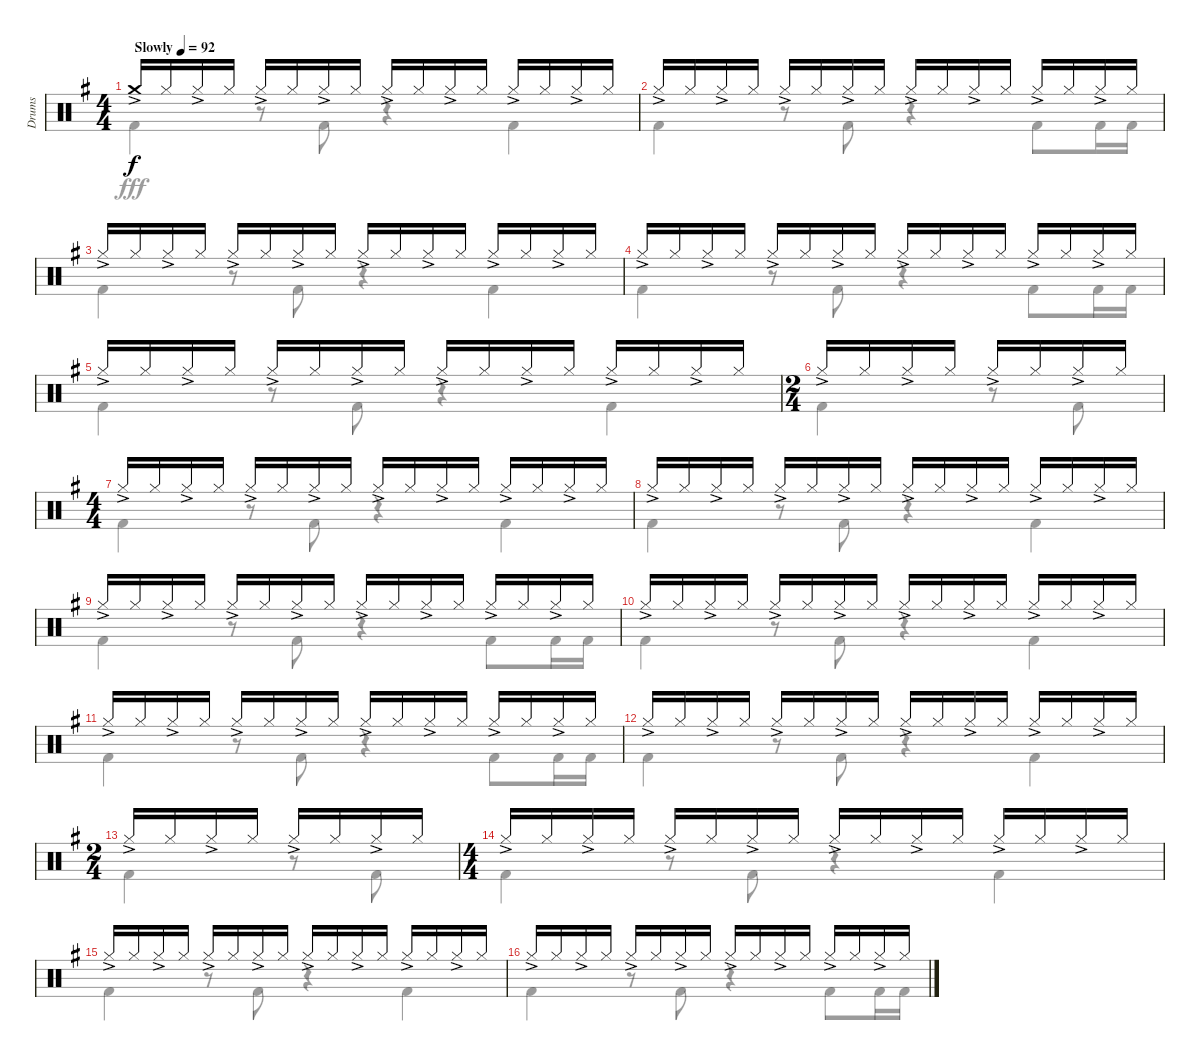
\track ("Drums" "Drums") {instrument percussion}
\staff {score}
\articulation defaults
\voice
\ts (4 4)
\tempo (92 "Slowly")
\clef neutral
\ks g "Crash medium (hit)"{ac}.16{dy f} "Hi-Hat (closed)".16 "Hi-Hat (closed)"{ac}.16 "Hi-Hat (closed)".16 "Hi-Hat (closed)"{ac}.16 "Hi-Hat (closed)".16 "Hi-Hat (closed)"{ac}.16 "Hi-Hat (closed)".16 "Hi-Hat (closed)"{ac}.16 "Hi-Hat (closed)".16 "Hi-Hat (closed)"{ac}.16 "Hi-Hat (closed)".16 "Hi-Hat (closed)"{ac}.16 "Hi-Hat (closed)".16 "Hi-Hat (closed)"{ac}.16 "Hi-Hat (closed)".16
|
"Hi-Hat (closed)"{ac}.16 "Hi-Hat (closed)".16 "Hi-Hat (closed)"{ac}.16 "Hi-Hat (closed)".16 "Hi-Hat (closed)"{ac}.16 "Hi-Hat (closed)".16 "Hi-Hat (closed)"{ac}.16 "Hi-Hat (closed)".16 "Hi-Hat (closed)"{ac}.16 "Hi-Hat (closed)".16 "Hi-Hat (closed)"{ac}.16 "Hi-Hat (closed)".16 "Hi-Hat (closed)"{ac}.16 "Hi-Hat (closed)".16 "Hi-Hat (closed)"{ac}.16 "Hi-Hat (closed)".16 |
"Hi-Hat (closed)"{ac}.16 "Hi-Hat (closed)".16 "Hi-Hat (closed)"{ac}.16 "Hi-Hat (closed)".16 "Hi-Hat (closed)"{ac}.16 "Hi-Hat (closed)".16 "Hi-Hat (closed)"{ac}.16 "Hi-Hat (closed)".16 "Hi-Hat (closed)"{ac}.16 "Hi-Hat (closed)".16 "Hi-Hat (closed)"{ac}.16 "Hi-Hat (closed)".16 "Hi-Hat (closed)"{ac}.16 "Hi-Hat (closed)".16 "Hi-Hat (closed)"{ac}.16 "Hi-Hat (closed)".16 |
"Hi-Hat (closed)"{ac}.16 "Hi-Hat (closed)".16 "Hi-Hat (closed)"{ac}.16 "Hi-Hat (closed)".16 "Hi-Hat (closed)"{ac}.16 "Hi-Hat (closed)".16 "Hi-Hat (closed)"{ac}.16 "Hi-Hat (closed)".16 "Hi-Hat (closed)"{ac}.16 "Hi-Hat (closed)".16 "Hi-Hat (closed)"{ac}.16 "Hi-Hat (closed)".16 "Hi-Hat (closed)"{ac}.16 "Hi-Hat (closed)".16 "Hi-Hat (closed)"{ac}.16 "Hi-Hat (closed)".16 |
"Hi-Hat (closed)"{ac}.16 "Hi-Hat (closed)".16 "Hi-Hat (closed)"{ac}.16 "Hi-Hat (closed)".16 "Hi-Hat (closed)"{ac}.16 "Hi-Hat (closed)".16 "Hi-Hat (closed)"{ac}.16 "Hi-Hat (closed)".16 "Hi-Hat (closed)"{ac}.16 "Hi-Hat (closed)".16 "Hi-Hat (closed)"{ac}.16 "Hi-Hat (closed)".16 "Hi-Hat (closed)"{ac}.16 "Hi-Hat (closed)".16 "Hi-Hat (closed)"{ac}.16 "Hi-Hat (closed)".16 |
\ts (2 4)
"Hi-Hat (closed)"{ac}.16 "Hi-Hat (closed)".16 "Hi-Hat (closed)"{ac}.16 "Hi-Hat (closed)".16 "Hi-Hat (closed)"{ac}.16 "Hi-Hat (closed)".16 "Hi-Hat (closed)"{ac}.16 "Hi-Hat (closed)".16 |
\ts (4 4)
"Hi-Hat (closed)"{ac}.16 "Hi-Hat (closed)".16 "Hi-Hat (closed)"{ac}.16 "Hi-Hat (closed)".16 "Hi-Hat (closed)"{ac}.16 "Hi-Hat (closed)".16 "Hi-Hat (closed)"{ac}.16 "Hi-Hat (closed)".16 "Hi-Hat (closed)"{ac}.16 "Hi-Hat (closed)".16 "Hi-Hat (closed)"{ac}.16 "Hi-Hat (closed)".16 "Hi-Hat (closed)"{ac}.16 "Hi-Hat (closed)".16 "Hi-Hat (closed)"{ac}.16 "Hi-Hat (closed)".16 |
"Hi-Hat (closed)"{ac}.16 "Hi-Hat (closed)".16 "Hi-Hat (closed)"{ac}.16 "Hi-Hat (closed)".16 "Hi-Hat (closed)"{ac}.16 "Hi-Hat (closed)".16 "Hi-Hat (closed)"{ac}.16 "Hi-Hat (closed)".16 "Hi-Hat (closed)"{ac}.16 "Hi-Hat (closed)".16 "Hi-Hat (closed)"{ac}.16 "Hi-Hat (closed)".16 "Hi-Hat (closed)"{ac}.16 "Hi-Hat (closed)".16 "Hi-Hat (closed)"{ac}.16 "Hi-Hat (closed)".16 |
"Hi-Hat (closed)"{ac}.16 "Hi-Hat (closed)".16 "Hi-Hat (closed)"{ac}.16 "Hi-Hat (closed)".16 "Hi-Hat (closed)"{ac}.16 "Hi-Hat (closed)".16 "Hi-Hat (closed)"{ac}.16 "Hi-Hat (closed)".16 "Hi-Hat (closed)"{ac}.16 "Hi-Hat (closed)".16 "Hi-Hat (closed)"{ac}.16 "Hi-Hat (closed)".16 "Hi-Hat (closed)"{ac}.16 "Hi-Hat (closed)".16 "Hi-Hat (closed)"{ac}.16 "Hi-Hat (closed)".16 |
"Hi-Hat (closed)"{ac}.16 "Hi-Hat (closed)".16 "Hi-Hat (closed)"{ac}.16 "Hi-Hat (closed)".16 "Hi-Hat (closed)"{ac}.16 "Hi-Hat (closed)".16 "Hi-Hat (closed)"{ac}.16 "Hi-Hat (closed)".16 "Hi-Hat (closed)"{ac}.16 "Hi-Hat (closed)".16 "Hi-Hat (closed)"{ac}.16 "Hi-Hat (closed)".16 "Hi-Hat (closed)"{ac}.16 "Hi-Hat (closed)".16 "Hi-Hat (closed)"{ac}.16 "Hi-Hat (closed)".16 |
"Hi-Hat (closed)"{ac}.16 "Hi-Hat (closed)".16 "Hi-Hat (closed)"{ac}.16 "Hi-Hat (closed)".16 "Hi-Hat (closed)"{ac}.16 "Hi-Hat (closed)".16 "Hi-Hat (closed)"{ac}.16 "Hi-Hat (closed)".16 "Hi-Hat (closed)"{ac}.16 "Hi-Hat (closed)".16 "Hi-Hat (closed)"{ac}.16 "Hi-Hat (closed)".16 "Hi-Hat (closed)"{ac}.16 "Hi-Hat (closed)".16 "Hi-Hat (closed)"{ac}.16 "Hi-Hat (closed)".16 |
"Hi-Hat (closed)"{ac}.16 "Hi-Hat (closed)".16 "Hi-Hat (closed)"{ac}.16 "Hi-Hat (closed)".16 "Hi-Hat (closed)"{ac}.16 "Hi-Hat (closed)".16 "Hi-Hat (closed)"{ac}.16 "Hi-Hat (closed)".16 "Hi-Hat (closed)"{ac}.16 "Hi-Hat (closed)".16 "Hi-Hat (closed)"{ac}.16 "Hi-Hat (closed)".16 "Hi-Hat (closed)"{ac}.16 "Hi-Hat (closed)".16 "Hi-Hat (closed)"{ac}.16 "Hi-Hat (closed)".16 |
\ts (2 4)
"Hi-Hat (closed)"{ac}.16 "Hi-Hat (closed)".16 "Hi-Hat (closed)"{ac}.16 "Hi-Hat (closed)".16 "Hi-Hat (closed)"{ac}.16 "Hi-Hat (closed)".16 "Hi-Hat (closed)"{ac}.16 "Hi-Hat (closed)".16 |
\ts (4 4)
"Hi-Hat (closed)"{ac}.16 "Hi-Hat (closed)".16 "Hi-Hat (closed)"{ac}.16 "Hi-Hat (closed)".16 "Hi-Hat (closed)"{ac}.16 "Hi-Hat (closed)".16 "Hi-Hat (closed)"{ac}.16 "Hi-Hat (closed)".16 "Hi-Hat (closed)"{ac}.16 "Hi-Hat (closed)".16 "Hi-Hat (closed)"{ac}.16 "Hi-Hat (closed)".16 "Hi-Hat (closed)"{ac}.16 "Hi-Hat (closed)".16 "Hi-Hat (closed)"{ac}.16 "Hi-Hat (closed)".16 |
"Hi-Hat (closed)"{ac}.16 "Hi-Hat (closed)".16 "Hi-Hat (closed)"{ac}.16 "Hi-Hat (closed)".16 "Hi-Hat (closed)"{ac}.16 "Hi-Hat (closed)".16 "Hi-Hat (closed)"{ac}.16 "Hi-Hat (closed)".16 "Hi-Hat (closed)"{ac}.16 "Hi-Hat (closed)".16 "Hi-Hat (closed)"{ac}.16 "Hi-Hat (closed)".16 "Hi-Hat (closed)"{ac}.16 "Hi-Hat (closed)".16 "Hi-Hat (closed)"{ac}.16 "Hi-Hat (closed)".16 |
"Hi-Hat (closed)"{ac}.16 "Hi-Hat (closed)".16 "Hi-Hat (closed)"{ac}.16 "Hi-Hat (closed)".16 "Hi-Hat (closed)"{ac}.16 "Hi-Hat (closed)".16 "Hi-Hat (closed)"{ac}.16 "Hi-Hat (closed)".16 "Hi-Hat (closed)"{ac}.16 "Hi-Hat (closed)".16 "Hi-Hat (closed)"{ac}.16 "Hi-Hat (closed)".16 "Hi-Hat (closed)"{ac}.16 "Hi-Hat (closed)".16 "Hi-Hat (closed)"{ac}.16 "Hi-Hat (closed)".16
\voice
\clef neutral
\ottava regular
\simile none
\ks g "Kick (hit) 2".4{dy fff}
r.8 "Kick (hit) 2".8 r.4 "Kick (hit) 2".4 |
"Kick (hit) 2".4 r.8 "Kick (hit) 2".8 r.4 "Kick (hit) 2".8 "Kick (hit) 2".16 "Kick (hit) 2".16 |
"Kick (hit) 2".4 r.8 "Kick (hit) 2".8 r.4 "Kick (hit) 2".4 |
"Kick (hit) 2".4 r.8 "Kick (hit) 2".8 r.4 "Kick (hit) 2".8 "Kick (hit) 2".16 "Kick (hit) 2".16 |
"Kick (hit) 2".4 r.8 "Kick (hit) 2".8 r.4 "Kick (hit) 2".4 |
"Kick (hit) 2".4 r.8 "Kick (hit) 2".8 |
"Kick (hit) 2".4 r.8 "Kick (hit) 2".8 r.4 "Kick (hit) 2".4 |
"Kick (hit) 2".4 r.8 "Kick (hit) 2".8 r.4 "Kick (hit) 2".4 |
"Kick (hit) 2".4 r.8 "Kick (hit) 2".8 r.4 "Kick (hit) 2".8 "Kick (hit) 2".16 "Kick (hit) 2".16 |
"Kick (hit) 2".4 r.8 "Kick (hit) 2".8 r.4 "Kick (hit) 2".4 |
"Kick (hit) 2".4 r.8 "Kick (hit) 2".8 r.4 "Kick (hit) 2".8 "Kick (hit) 2".16 "Kick (hit) 2".16 |
"Kick (hit) 2".4 r.8 "Kick (hit) 2".8 r.4 "Kick (hit) 2".4 |
"Kick (hit) 2".4 r.8 "Kick (hit) 2".8 |
"Kick (hit) 2".4 r.8 "Kick (hit) 2".8 r.4 "Kick (hit) 2".4 |
"Kick (hit) 2".4 r.8 "Kick (hit) 2".8 r.4 "Kick (hit) 2".4 |
"Kick (hit) 2".4 r.8 "Kick (hit) 2".8 r.4 "Kick (hit) 2".8 "Kick (hit) 2".16 "Kick (hit) 2".16
